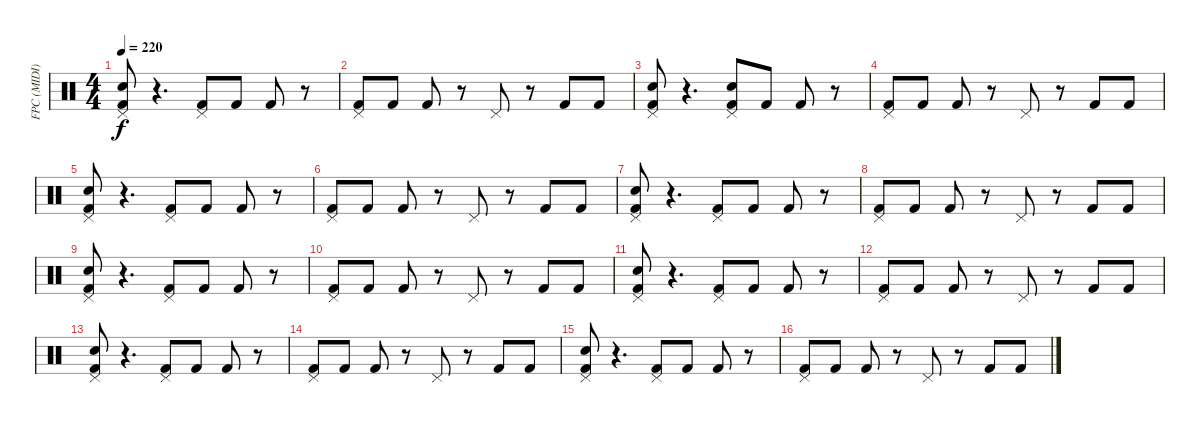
\track ("FPC (MIDI)" "FPC (MIDI)") {instrument percussion}
\staff {score}
\articulation defaults
\ts (4 4)
\tempo 220
\clef neutral
\ks c
("Kick (hit) 2" "Pedal Hi-Hat (hit)" "Snare (hit) 2").8{dy f} r.4{d} ("Kick (hit) 2" "Pedal Hi-Hat (hit)").8 "Kick (hit) 2".8 "Kick (hit) 2".8 r.8 |
("Kick (hit) 2" "Pedal Hi-Hat (hit)").8 "Kick (hit) 2".8 "Kick (hit) 2".8 r.8 "Pedal Hi-Hat (hit)".8 r.8 "Kick (hit) 2".8 "Kick (hit) 2".8 |
("Kick (hit) 2" "Pedal Hi-Hat (hit)" "Snare (hit) 2").8 r.4{d} ("Kick (hit) 2" "Pedal Hi-Hat (hit)" "Snare (hit) 2").8 "Kick (hit) 2".8 "Kick (hit) 2".8 r.8 |
("Pedal Hi-Hat (hit)" "Kick (hit) 2").8 "Kick (hit) 2".8 "Kick (hit) 2".8 r.8 "Pedal Hi-Hat (hit)".8 r.8 "Kick (hit) 2".8 "Kick (hit) 2".8 |
("Kick (hit) 2" "Pedal Hi-Hat (hit)" "Snare (hit) 2").8 r.4{d} ("Kick (hit) 2" "Pedal Hi-Hat (hit)").8 "Kick (hit) 2".8 "Kick (hit) 2".8 r.8 |
("Kick (hit) 2" "Pedal Hi-Hat (hit)").8 "Kick (hit) 2".8 "Kick (hit) 2".8 r.8 "Pedal Hi-Hat (hit)".8 r.8 "Kick (hit) 2".8 "Kick (hit) 2".8 |
("Kick (hit) 2" "Pedal Hi-Hat (hit)" "Snare (hit) 2").8 r.4{d} ("Kick (hit) 2" "Pedal Hi-Hat (hit)").8 "Kick (hit) 2".8 "Kick (hit) 2".8 r.8 |
("Pedal Hi-Hat (hit)" "Kick (hit) 2").8 "Kick (hit) 2".8 "Kick (hit) 2".8 r.8 "Pedal Hi-Hat (hit)".8 r.8 "Kick (hit) 2".8 "Kick (hit) 2".8 |
("Kick (hit) 2" "Pedal Hi-Hat (hit)" "Snare (hit) 2").8 r.4{d} ("Pedal Hi-Hat (hit)" "Kick (hit) 2").8 "Kick (hit) 2".8 "Kick (hit) 2".8 r.8 |
("Pedal Hi-Hat (hit)" "Kick (hit) 2").8 "Kick (hit) 2".8 "Kick (hit) 2".8 r.8 "Pedal Hi-Hat (hit)".8 r.8 "Kick (hit) 2".8 "Kick (hit) 2".8 |
("Kick (hit) 2" "Pedal Hi-Hat (hit)" "Snare (hit) 2").8 r.4{d} ("Pedal Hi-Hat (hit)" "Kick (hit) 2").8 "Kick (hit) 2".8 "Kick (hit) 2".8 r.8 |
("Kick (hit) 2" "Pedal Hi-Hat (hit)").8 "Kick (hit) 2".8 "Kick (hit) 2".8 r.8 "Pedal Hi-Hat (hit)".8 r.8 "Kick (hit) 2".8 "Kick (hit) 2".8 |
("Kick (hit) 2" "Pedal Hi-Hat (hit)" "Snare (hit) 2").8 r.4{d} ("Pedal Hi-Hat (hit)" "Kick (hit) 2").8 "Kick (hit) 2".8 "Kick (hit) 2".8 r.8 |
("Pedal Hi-Hat (hit)" "Kick (hit) 2").8 "Kick (hit) 2".8 "Kick (hit) 2".8 r.8 "Pedal Hi-Hat (hit)".8 r.8 "Kick (hit) 2".8 "Kick (hit) 2".8 |
("Kick (hit) 2" "Pedal Hi-Hat (hit)" "Snare (hit) 2").8 r.4{d} ("Pedal Hi-Hat (hit)" "Kick (hit) 2").8 "Kick (hit) 2".8 "Kick (hit) 2".8 r.8 |
("Kick (hit) 2" "Pedal Hi-Hat (hit)").8 "Kick (hit) 2".8 "Kick (hit) 2".8 r.8 "Pedal Hi-Hat (hit)".8 r.8 "Kick (hit) 2".8 "Kick (hit) 2".8
